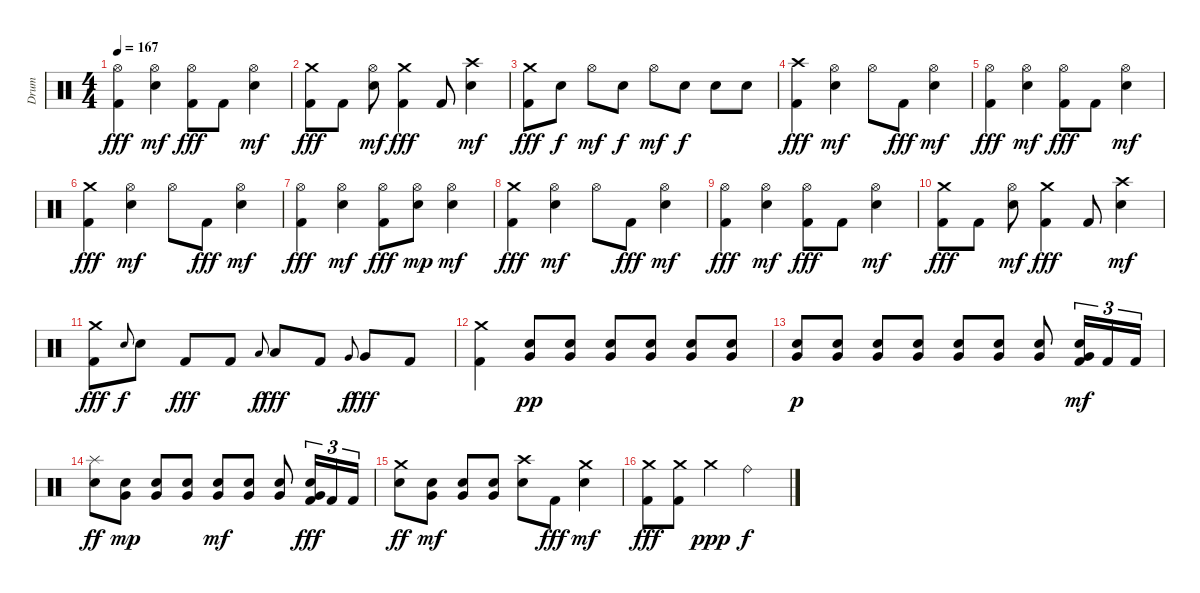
\track ("Drum" "Drum") {instrument percussion}
\staff {score}
\articulation defaults
\ts (4 4)
\tempo 167
\clef neutral
\ks c
("Hi-Hat (open)" "Kick (hit) 2").4{dy fff} ("Hi-Hat (open)" "Electric Snare (hit)").4{dy mf} ("Hi-Hat (open)" "Kick (hit) 2").8{dy fff} "Kick (hit) 2".8 ("Hi-Hat (open)" "Electric Snare (hit)").4{dy mf} |
("Crash medium (hit)" "Kick (hit) 2").8{dy fff} "Kick (hit) 2".8 ("Hi-Hat (open)" "Electric Snare (hit)").8{dy mf} ("Crash medium (hit)" "Kick (hit) 2").4{dy fff} "Kick (hit) 2".8 ("Crash high (hit)" "Electric Snare (hit)").4{dy mf} |
("Crash medium (hit)" "Kick (hit) 2").8{dy fff} "Electric Snare (hit)".8{dy f} "Hi-Hat (open)".8{dy mf} "Electric Snare (hit)".8{dy f} "Hi-Hat (open)".8{dy mf} "Electric Snare (hit)".8{dy f} "Electric Snare (hit)".8 "Electric Snare (hit)".8 |
("Crash high (hit)" "Kick (hit) 2").4{dy fff} ("Hi-Hat (open)" "Electric Snare (hit)").4{dy mf} "Hi-Hat (open)".8 "Kick (hit) 2".8{dy fff} ("Hi-Hat (open)" "Electric Snare (hit)").4{dy mf} |
("Hi-Hat (open)" "Kick (hit) 2").4{dy fff} ("Hi-Hat (open)" "Electric Snare (hit)").4{dy mf} ("Hi-Hat (open)" "Kick (hit) 2").8{dy fff} "Kick (hit) 2".8 ("Hi-Hat (open)" "Electric Snare (hit)").4{dy mf} |
("Crash medium (hit)" "Kick (hit) 2").4{dy fff} ("Hi-Hat (open)" "Electric Snare (hit)").4{dy mf} "Hi-Hat (open)".8 "Kick (hit) 2".8{dy fff} ("Hi-Hat (open)" "Electric Snare (hit)").4{dy mf} |
("Hi-Hat (open)" "Kick (hit) 2").4{dy fff} ("Hi-Hat (open)" "Electric Snare (hit)").4{dy mf} ("Hi-Hat (open)" "Kick (hit) 2").8{dy fff} ("Hi-Hat (open)" "Electric Snare (hit)").8{dy mp} ("Hi-Hat (open)" "Electric Snare (hit)").4{dy mf} |
("Crash medium (hit)" "Kick (hit) 2").4{dy fff} ("Hi-Hat (open)" "Electric Snare (hit)").4{dy mf} "Hi-Hat (open)".8 "Kick (hit) 2".8{dy fff} ("Hi-Hat (open)" "Electric Snare (hit)").4{dy mf} |
("Hi-Hat (open)" "Kick (hit) 2").4{dy fff} ("Hi-Hat (open)" "Electric Snare (hit)").4{dy mf} ("Hi-Hat (open)" "Kick (hit) 2").8{dy fff} "Kick (hit) 2".8 ("Hi-Hat (open)" "Electric Snare (hit)").4{dy mf} |
("Crash medium (hit)" "Kick (hit) 2").8{dy fff} "Kick (hit) 2".8 ("Hi-Hat (open)" "Electric Snare (hit)").8{dy mf} ("Crash medium (hit)" "Kick (hit) 2").4{dy fff} "Kick (hit) 2".8 ("Crash high (hit)" "Electric Snare (hit)").4{dy mf} |
("Crash medium (hit)" "Kick (hit) 2").8{dy fff} "Electric Snare (hit)".8{gr onbeat dy f} "Electric Snare (hit)".8 "Kick (hit) 2".8{dy fff} "Kick (hit) 2".8 "Low Tom (hit)".8{gr onbeat dy f} "Low Tom (hit)".8{dy fff} "Kick (hit) 2".8 "Very Low Tom (hit)".8{gr onbeat dy f} "Very Low Tom (hit)".8{dy fff} "Kick (hit) 2".8 |
("Crash medium (hit)" "Kick (hit) 2").4 ("Very Low Tom (hit)" "Electric Snare (hit)").8{dy pp} ("Very Low Tom (hit)" "Electric Snare (hit)").8 ("Very Low Tom (hit)" "Electric Snare (hit)").8 ("Very Low Tom (hit)" "Electric Snare (hit)").8 ("Very Low Tom (hit)" "Electric Snare (hit)").8 ("Very Low Tom (hit)" "Electric Snare (hit)").8 |
("Very Low Tom (hit)" "Electric Snare (hit)").8{dy p} ("Very Low Tom (hit)" "Electric Snare (hit)").8 ("Very Low Tom (hit)" "Electric Snare (hit)").8 ("Very Low Tom (hit)" "Electric Snare (hit)").8 ("Very Low Tom (hit)" "Electric Snare (hit)").8 ("Very Low Tom (hit)" "Electric Snare (hit)").8 ("Very Low Tom (hit)" "Electric Snare (hit)").8 ("Very Low Tom (hit)" "Electric Snare (hit)" "Kick (hit) 2").16{tu (3 2) dy mf} "Kick (hit) 2".16{tu (3 2)} "Kick (hit) 2".16{tu (3 2)} |
("Splash (hit)" "Electric Snare (hit)").8{dy ff} ("Very Low Tom (hit)" "Electric Snare (hit)").8{dy mp} ("Very Low Tom (hit)" "Electric Snare (hit)").8 ("Very Low Tom (hit)" "Electric Snare (hit)").8 ("Very Low Tom (hit)" "Electric Snare (hit)").8{dy mf} ("Very Low Tom (hit)" "Electric Snare (hit)").8 ("Very Low Tom (hit)" "Electric Snare (hit)").8 ("Very Low Tom (hit)" "Electric Snare (hit)" "Kick (hit) 2").16{tu (3 2) dy fff} "Kick (hit) 2".16{tu (3 2)} "Kick (hit) 2".16{tu (3 2)} |
("Crash medium (hit)" "Electric Snare (hit)").8{dy ff} ("Very Low Tom (hit)" "Electric Snare (hit)").8{dy mf} ("Very Low Tom (hit)" "Electric Snare (hit)").8 ("Very Low Tom (hit)" "Electric Snare (hit)").8 ("Crash high (hit)" "Electric Snare (hit)").8 "Kick (hit) 2".8{dy fff} ("Crash medium (hit)" "Electric Snare (hit)").4{dy mf} |
("Crash medium (hit)" "Kick (hit) 2").8{dy fff} ("Crash medium (hit)" "Kick (hit) 2").8 "Crash medium (hit)".4{dy ppp} "Ride (bell)".2{dy f}
